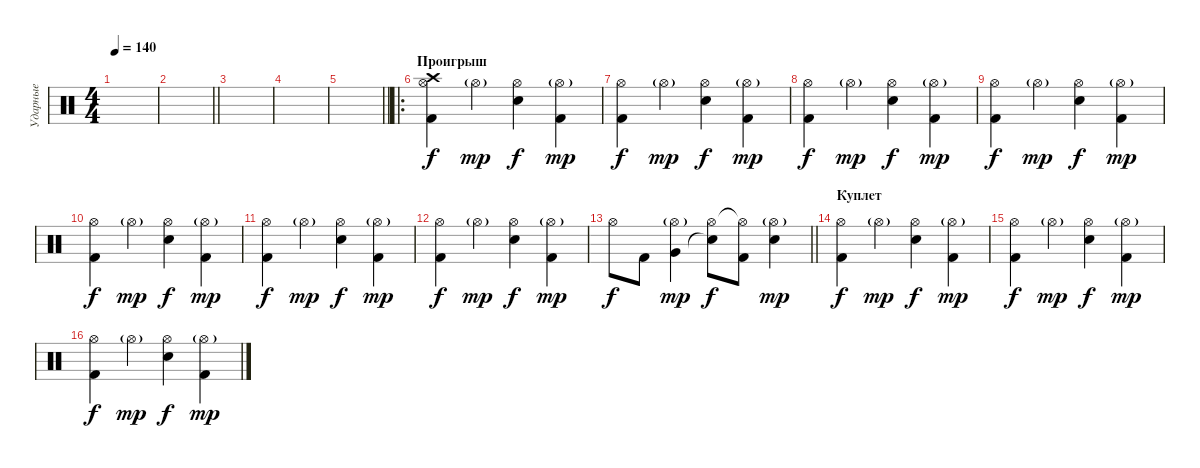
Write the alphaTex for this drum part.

\track ("Ударные" "Ударные") {instrument percussion}
\staff {score}
\articulation defaults
\ts (4 4)
\tempo 140
\clef neutral
\ks c
|
\barLineRight lightlight
|
|
|
\barLineRight lightlight
|
\ro
\section ("" "Проигрыш")
("Hi-Hat (open)" "Crash high (hit)" "Kick (hit) 2").4 "Hi-Hat (open)"{g}.4{dy mp} ("Hi-Hat (open)" "Electric Snare (hit)").4{dy f} ("Hi-Hat (open)"{g} "Kick (hit) 2").4{dy mp} |
("Hi-Hat (open)" "Kick (hit) 2").4{dy f} "Hi-Hat (open)"{g}.4{dy mp} ("Hi-Hat (open)" "Electric Snare (hit)").4{dy f} ("Hi-Hat (open)"{g} "Kick (hit) 2").4{dy mp} |
("Hi-Hat (open)" "Kick (hit) 2").4{dy f} "Hi-Hat (open)"{g}.4{dy mp} ("Hi-Hat (open)" "Electric Snare (hit)").4{dy f} ("Hi-Hat (open)"{g} "Kick (hit) 2").4{dy mp} |
("Hi-Hat (open)" "Kick (hit) 2").4{dy f} "Hi-Hat (open)"{g}.4{dy mp} ("Hi-Hat (open)" "Electric Snare (hit)").4{dy f} ("Hi-Hat (open)"{g} "Kick (hit) 2").4{dy mp} |
("Hi-Hat (open)" "Kick (hit) 2").4{dy f} "Hi-Hat (open)"{g}.4{dy mp} ("Hi-Hat (open)" "Electric Snare (hit)").4{dy f} ("Hi-Hat (open)"{g} "Kick (hit) 2").4{dy mp} |
("Hi-Hat (open)" "Kick (hit) 2").4{dy f} "Hi-Hat (open)"{g}.4{dy mp} ("Hi-Hat (open)" "Electric Snare (hit)").4{dy f} ("Hi-Hat (open)"{g} "Kick (hit) 2").4{dy mp} |
("Hi-Hat (open)" "Kick (hit) 2").4{dy f} "Hi-Hat (open)"{g}.4{dy mp} ("Hi-Hat (open)" "Electric Snare (hit)").4{dy f} ("Hi-Hat (open)"{g} "Kick (hit) 2").4{dy mp} |
\barLineRight lightlight "Hi-Hat (open)".8{dy f} "Kick (hit) 2".8
("Hi-Hat (open)"{g} "Very Low Tom (hit)").4{dy mp} ("Hi-Hat (open)" "Snare (hit)"{t}).8{dy f} ("Hi-Hat (open)"{t} "Kick (hit) 2").8 ("Hi-Hat (open)"{g} "Electric Snare (hit)").4{dy mp} |
\section ("" "Куплет")
("Hi-Hat (open)" "Kick (hit) 2").4{dy f} "Hi-Hat (open)"{g}.4{dy mp} ("Hi-Hat (open)" "Electric Snare (hit)").4{dy f} ("Hi-Hat (open)"{g} "Kick (hit) 2").4{dy mp} |
("Hi-Hat (open)" "Kick (hit) 2").4{dy f} "Hi-Hat (open)"{g}.4{dy mp} ("Hi-Hat (open)" "Electric Snare (hit)").4{dy f} ("Hi-Hat (open)"{g} "Kick (hit) 2").4{dy mp} |
("Hi-Hat (open)" "Kick (hit) 2").4{dy f} "Hi-Hat (open)"{g}.4{dy mp} ("Hi-Hat (open)" "Electric Snare (hit)").4{dy f} ("Hi-Hat (open)"{g} "Kick (hit) 2").4{dy mp}
